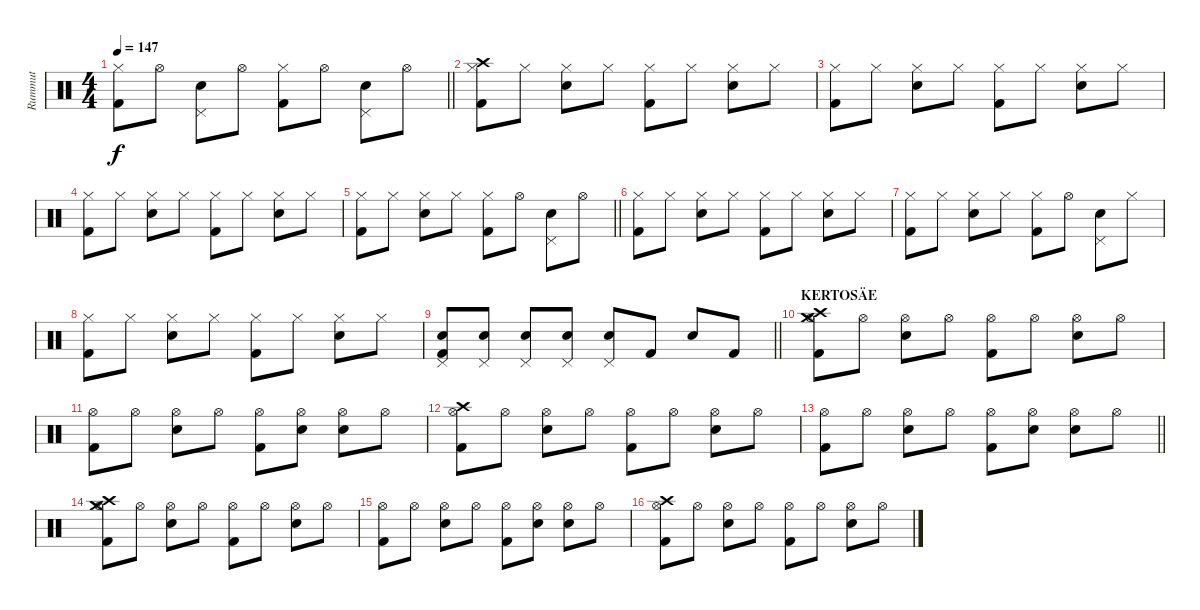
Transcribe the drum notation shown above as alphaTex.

\track ("Rummut" "Rummut") {instrument percussion}
\staff {score}
\articulation defaults
\ts (4 4)
\tempo 147
\clef neutral
\barLineRight lightlight
\ks c
("Hi-Hat (closed)" "Kick (hit) 2").8{dy f} "Hi-Hat (open)".8 ("Pedal Hi-Hat (hit)" "Snare (hit) 2").8 "Hi-Hat (open)".8 ("Hi-Hat (closed)" "Kick (hit) 2").8 "Hi-Hat (open)".8 ("Pedal Hi-Hat (hit)" "Snare (hit) 2").8 "Hi-Hat (open)".8 |
("Crash high (hit)" "Hi-Hat (closed)" "Kick (hit) 2").8 "Hi-Hat (closed)".8 ("Hi-Hat (closed)" "Snare (hit) 2").8 "Hi-Hat (closed)".8 ("Hi-Hat (closed)" "Kick (hit) 2").8 "Hi-Hat (closed)".8 ("Hi-Hat (closed)" "Snare (hit) 2").8 "Hi-Hat (closed)".8 |
("Hi-Hat (closed)" "Kick (hit) 2").8 "Hi-Hat (closed)".8 ("Hi-Hat (closed)" "Snare (hit) 2").8 "Hi-Hat (closed)".8 ("Hi-Hat (closed)" "Kick (hit) 2").8 "Hi-Hat (closed)".8 ("Hi-Hat (closed)" "Snare (hit) 2").8 "Hi-Hat (closed)".8 |
("Hi-Hat (closed)" "Kick (hit) 2").8 "Hi-Hat (closed)".8 ("Hi-Hat (closed)" "Snare (hit) 2").8 "Hi-Hat (closed)".8 ("Hi-Hat (closed)" "Kick (hit) 2").8 "Hi-Hat (closed)".8 ("Hi-Hat (closed)" "Snare (hit) 2").8 "Hi-Hat (closed)".8 |
\barLineRight lightlight
("Hi-Hat (closed)" "Kick (hit) 2").8 "Hi-Hat (closed)".8 ("Hi-Hat (closed)" "Snare (hit) 2").8 "Hi-Hat (closed)".8 ("Hi-Hat (closed)" "Kick (hit) 2").8 "Hi-Hat (open)".8 ("Pedal Hi-Hat (hit)" "Snare (hit) 2").8 "Hi-Hat (open)".8 |
("Hi-Hat (closed)" "Kick (hit) 2").8 "Hi-Hat (closed)".8 ("Hi-Hat (closed)" "Snare (hit) 2").8 "Hi-Hat (closed)".8 ("Hi-Hat (closed)" "Kick (hit) 2").8 "Hi-Hat (closed)".8 ("Hi-Hat (closed)" "Snare (hit) 2").8 "Hi-Hat (closed)".8 |
("Hi-Hat (closed)" "Kick (hit) 2").8 "Hi-Hat (closed)".8 ("Hi-Hat (closed)" "Snare (hit) 2").8 "Hi-Hat (closed)".8 ("Hi-Hat (closed)" "Kick (hit) 2").8 "Hi-Hat (open)".8 ("Pedal Hi-Hat (hit)" "Snare (hit) 2").8 "Hi-Hat (closed)".8 |
("Hi-Hat (closed)" "Kick (hit) 2").8 "Hi-Hat (closed)".8 ("Hi-Hat (closed)" "Snare (hit) 2").8 "Hi-Hat (closed)".8 ("Hi-Hat (closed)" "Kick (hit) 2").8 "Hi-Hat (closed)".8 ("Hi-Hat (closed)" "Snare (hit) 2").8 "Hi-Hat (closed)".8 |
\barLineRight lightlight
("Pedal Hi-Hat (hit)" "Snare (hit) 2" "Kick (hit) 2").8 ("Pedal Hi-Hat (hit)" "Snare (hit) 2").8 ("Pedal Hi-Hat (hit)" "Snare (hit) 2").8 ("Pedal Hi-Hat (hit)" "Snare (hit) 2").8 ("Pedal Hi-Hat (hit)" "Snare (hit) 2").8 "Kick (hit) 2".8 "Snare (hit) 2".8 "Kick (hit) 2".8 |
\section ("" "KERTOSÄE")
("Crash high (hit)" "Crash medium (hit)" "Hi-Hat (open)" "Kick (hit) 2").8 "Hi-Hat (open)".8 ("Hi-Hat (open)" "Snare (hit) 2").8 "Hi-Hat (open)".8 ("Hi-Hat (open)" "Kick (hit) 2").8 "Hi-Hat (open)".8 ("Hi-Hat (open)" "Snare (hit) 2").8 "Hi-Hat (open)".8 |
("Hi-Hat (open)" "Kick (hit) 2").8 "Hi-Hat (open)".8 ("Hi-Hat (open)" "Snare (hit) 2").8 "Hi-Hat (open)".8 ("Hi-Hat (open)" "Kick (hit) 2").8 ("Hi-Hat (open)" "Snare (hit) 2").8 ("Hi-Hat (open)" "Snare (hit) 2").8 "Hi-Hat (open)".8 |
("Crash high (hit)" "Hi-Hat (open)" "Kick (hit) 2").8 "Hi-Hat (open)".8 ("Hi-Hat (open)" "Snare (hit) 2").8 "Hi-Hat (open)".8 ("Hi-Hat (open)" "Kick (hit) 2").8 "Hi-Hat (open)".8 ("Hi-Hat (open)" "Snare (hit) 2").8 "Hi-Hat (open)".8 |
\barLineRight lightlight
("Hi-Hat (open)" "Kick (hit) 2").8 "Hi-Hat (open)".8 ("Hi-Hat (open)" "Snare (hit) 2").8 "Hi-Hat (open)".8 ("Hi-Hat (open)" "Kick (hit) 2").8 ("Hi-Hat (open)" "Snare (hit) 2").8 ("Hi-Hat (open)" "Snare (hit) 2").8 "Hi-Hat (open)".8 |
("Crash high (hit)" "Crash medium (hit)" "Hi-Hat (open)" "Kick (hit) 2").8 "Hi-Hat (open)".8 ("Hi-Hat (open)" "Snare (hit) 2").8 "Hi-Hat (open)".8 ("Hi-Hat (open)" "Kick (hit) 2").8 "Hi-Hat (open)".8 ("Hi-Hat (open)" "Snare (hit) 2").8 "Hi-Hat (open)".8 |
("Hi-Hat (open)" "Kick (hit) 2").8 "Hi-Hat (open)".8 ("Hi-Hat (open)" "Snare (hit) 2").8 "Hi-Hat (open)".8 ("Hi-Hat (open)" "Kick (hit) 2").8 ("Hi-Hat (open)" "Snare (hit) 2").8 ("Hi-Hat (open)" "Snare (hit) 2").8 "Hi-Hat (open)".8 |
("Crash high (hit)" "Hi-Hat (open)" "Kick (hit) 2").8 "Hi-Hat (open)".8 ("Hi-Hat (open)" "Snare (hit) 2").8 "Hi-Hat (open)".8 ("Hi-Hat (open)" "Kick (hit) 2").8 "Hi-Hat (open)".8 ("Hi-Hat (open)" "Snare (hit) 2").8 "Hi-Hat (open)".8
